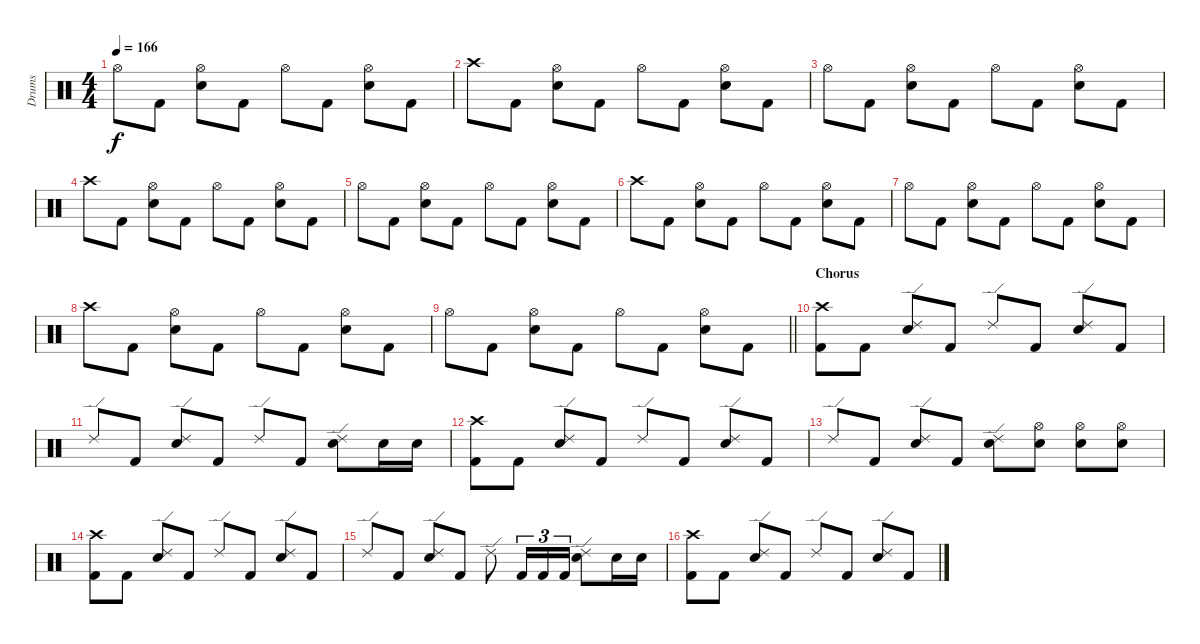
\track ("Drums" "Drums") {instrument percussion}
\staff {score}
\articulation defaults
\ts (4 4)
\tempo 166
\clef neutral
\ks c "Hi-Hat (open)".8{dy f} "Kick (hit) 2".8
("Hi-Hat (open)" "Electric Snare (hit)").8 "Kick (hit) 2".8 "Hi-Hat (open)".8 "Kick (hit) 2".8 ("Hi-Hat (open)" "Electric Snare (hit)").8 "Kick (hit) 2".8 |
"Crash high (hit)".8 "Kick (hit) 2".8 ("Hi-Hat (open)" "Electric Snare (hit)").8 "Kick (hit) 2".8 "Hi-Hat (open)".8 "Kick (hit) 2".8 ("Hi-Hat (open)" "Electric Snare (hit)").8 "Kick (hit) 2".8 |
"Hi-Hat (open)".8 "Kick (hit) 2".8 ("Hi-Hat (open)" "Electric Snare (hit)").8 "Kick (hit) 2".8 "Hi-Hat (open)".8 "Kick (hit) 2".8 ("Hi-Hat (open)" "Electric Snare (hit)").8 "Kick (hit) 2".8 |
"Crash high (hit)".8 "Kick (hit) 2".8 ("Hi-Hat (open)" "Electric Snare (hit)").8 "Kick (hit) 2".8 "Hi-Hat (open)".8 "Kick (hit) 2".8 ("Hi-Hat (open)" "Electric Snare (hit)").8 "Kick (hit) 2".8 |
"Hi-Hat (open)".8 "Kick (hit) 2".8 ("Hi-Hat (open)" "Electric Snare (hit)").8 "Kick (hit) 2".8 "Hi-Hat (open)".8 "Kick (hit) 2".8 ("Hi-Hat (open)" "Electric Snare (hit)").8 "Kick (hit) 2".8 |
"Crash high (hit)".8 "Kick (hit) 2".8 ("Hi-Hat (open)" "Electric Snare (hit)").8 "Kick (hit) 2".8 "Hi-Hat (open)".8 "Kick (hit) 2".8 ("Hi-Hat (open)" "Electric Snare (hit)").8 "Kick (hit) 2".8 |
"Hi-Hat (open)".8 "Kick (hit) 2".8 ("Hi-Hat (open)" "Electric Snare (hit)").8 "Kick (hit) 2".8 "Hi-Hat (open)".8 "Kick (hit) 2".8 ("Hi-Hat (open)" "Electric Snare (hit)").8 "Kick (hit) 2".8 |
"Crash high (hit)".8 "Kick (hit) 2".8 ("Hi-Hat (open)" "Electric Snare (hit)").8 "Kick (hit) 2".8 "Hi-Hat (open)".8 "Kick (hit) 2".8 ("Hi-Hat (open)" "Electric Snare (hit)").8 "Kick (hit) 2".8 |
\barLineRight lightlight "Hi-Hat (open)".8 "Kick (hit) 2".8
("Hi-Hat (open)" "Electric Snare (hit)").8 "Kick (hit) 2".8 "Hi-Hat (open)".8 "Kick (hit) 2".8 ("Hi-Hat (open)" "Electric Snare (hit)").8 "Kick (hit) 2".8 |
\section ("" "Chorus")
("Crash high (hit)" "Kick (hit) 2").8 "Kick (hit) 2".8 ("Ride (edge) 2" "Electric Snare (hit)").8 "Kick (hit) 2".8 "Ride (edge) 2".8 "Kick (hit) 2".8 ("Ride (edge) 2" "Electric Snare (hit)").8 "Kick (hit) 2".8 |
"Ride (edge) 2".8 "Kick (hit) 2".8 ("Ride (edge) 2" "Electric Snare (hit)").8 "Kick (hit) 2".8 "Ride (edge) 2".8 "Kick (hit) 2".8 ("Ride (edge) 2" "Electric Snare (hit)").8 "Electric Snare (hit)".16 "Electric Snare (hit)".16 |
("Crash high (hit)" "Kick (hit) 2").8 "Kick (hit) 2".8 ("Ride (edge) 2" "Electric Snare (hit)").8 "Kick (hit) 2".8 "Ride (edge) 2".8 "Kick (hit) 2".8 ("Ride (edge) 2" "Electric Snare (hit)").8 "Kick (hit) 2".8 |
"Ride (edge) 2".8 "Kick (hit) 2".8 ("Ride (edge) 2" "Electric Snare (hit)").8 "Kick (hit) 2".8 ("Ride (edge) 2" "Electric Snare (hit)").8 ("Hi-Hat (open)" "Electric Snare (hit)").8 ("Hi-Hat (open)" "Electric Snare (hit)").8 ("Hi-Hat (open)" "Electric Snare (hit)").8 |
("Crash high (hit)" "Kick (hit) 2").8 "Kick (hit) 2".8 ("Ride (edge) 2" "Electric Snare (hit)").8 "Kick (hit) 2".8 "Ride (edge) 2".8 "Kick (hit) 2".8 ("Ride (edge) 2" "Electric Snare (hit)").8 "Kick (hit) 2".8 |
"Ride (edge) 2".8 "Kick (hit) 2".8 ("Ride (edge) 2" "Electric Snare (hit)").8 "Kick (hit) 2".8 "Ride (edge) 2".8 "Kick (hit) 2".16{tu (3 2)} "Kick (hit) 2".16{tu (3 2)} "Kick (hit) 2".16{tu (3 2)} ("Ride (edge) 2" "Electric Snare (hit)").8 "Electric Snare (hit)".16 "Electric Snare (hit)".16 |
("Crash high (hit)" "Kick (hit) 2").8 "Kick (hit) 2".8 ("Ride (edge) 2" "Electric Snare (hit)").8 "Kick (hit) 2".8 "Ride (edge) 2".8 "Kick (hit) 2".8 ("Ride (edge) 2" "Electric Snare (hit)").8 "Kick (hit) 2".8
